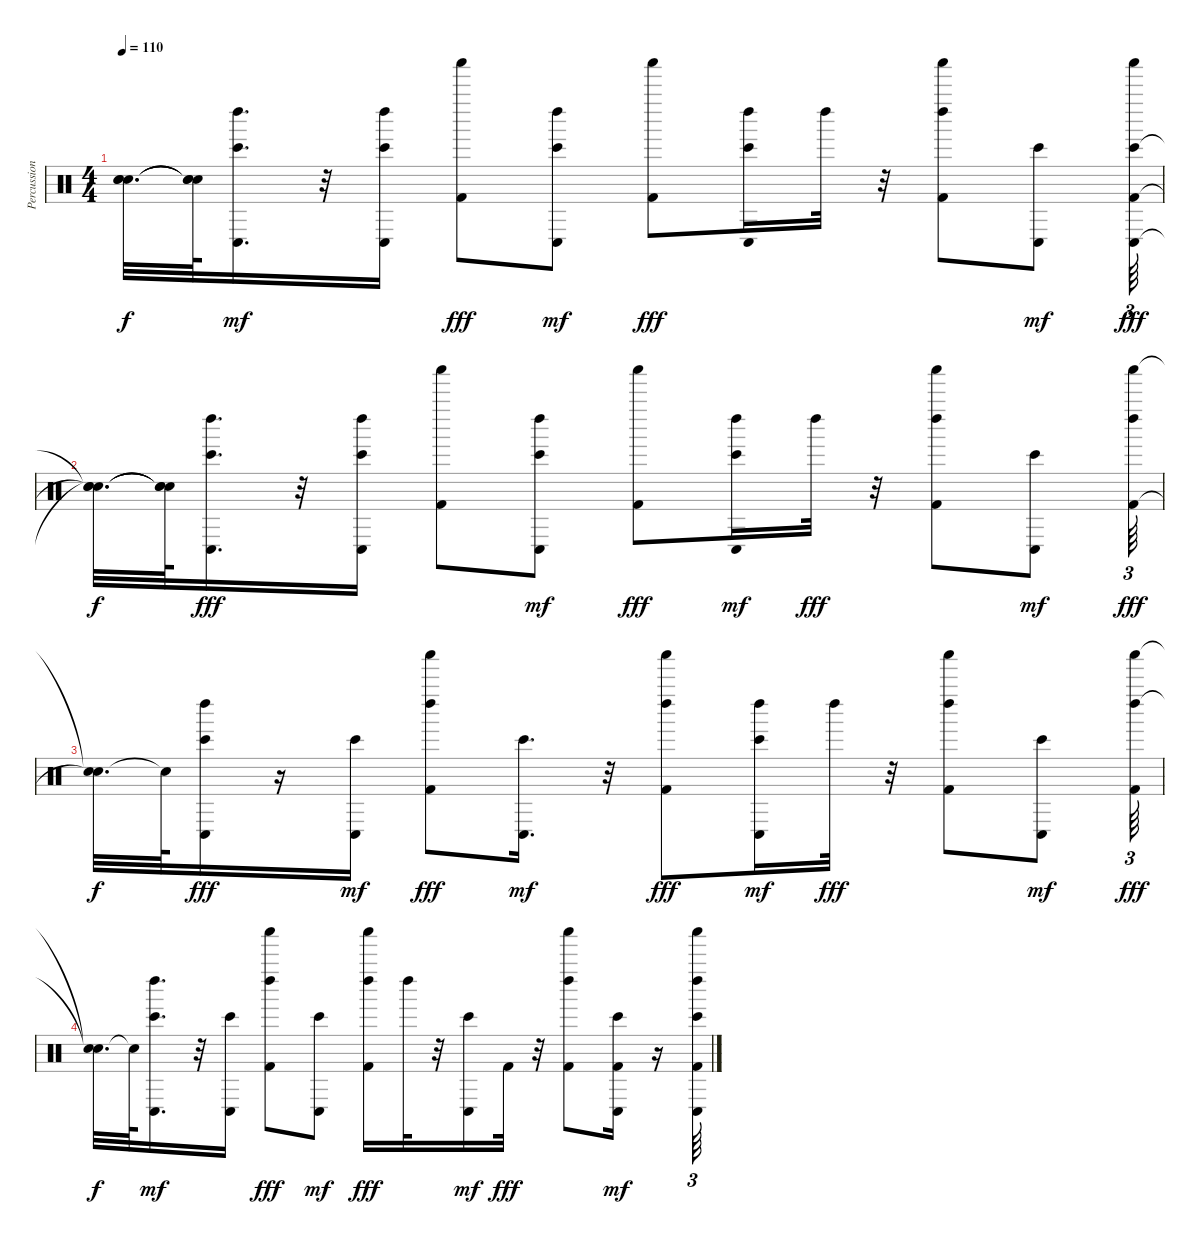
\track ("Percussion" "Percussion") {instrument percussion}
\staff {score}
\articulation defaults
\ts (4 4)
\tempo 110
\clef neutral
\ks c
("Snare (hit)"{t} "Snare (hit)"{t} "Snare (hit)"{t}).32{d dy f} ("Snare (hit)"{t} "Snare (hit)"{t} "Snare (hit)"{t}).64 ("Left Maraca (hit)" "Conga low (hit)" "Bongo High (hit)").16{d dy mf} r.32 ("Bongo High (hit)" "Left Maraca (hit)" "Conga low (hit)").16 ("Kick (hit) 2" "Shaker (hit)").8{dy fff} ("Left Maraca (hit)" "Conga low (hit)" "Bongo High (hit)").8{dy mf} ("Kick (hit) 2" "Shaker (hit)").8{dy fff} ("Conga low (hit)" "Bongo High (hit)" "Left Maraca (hit)").16 "Left Maraca (hit)".32 r.32 ("Shaker (hit)" "Left Maraca (hit)" "Kick (hit) 2").8 ("Conga low (hit)" "Bongo High (hit)").8{dy mf} ("Kick (hit) 2" "Conga low (hit)" "Bongo High (hit)" "Shaker (hit)").64{tu (3 2) dy fff} |
("Snare (hit)"{t} "Snare (hit)"{t} "Snare (hit)"{t}).32{d dy f} ("Snare (hit)"{t} "Snare (hit)"{t} "Snare (hit)"{t}).64 ("Conga low (hit)" "Bongo High (hit)" "Left Maraca (hit)").16{d dy fff} r.32 ("Conga low (hit)" "Bongo High (hit)" "Left Maraca (hit)").16 ("Shaker (hit)" "Kick (hit) 2").8 ("Left Maraca (hit)" "Bongo High (hit)" "Conga low (hit)").8{dy mf} ("Kick (hit) 2" "Shaker (hit)").8{dy fff} ("Left Maraca (hit)" "Bongo High (hit)" "Conga low (hit)").16{dy mf} "Left Maraca (hit)".32{dy fff} r.32 ("Kick (hit) 2" "Left Maraca (hit)" "Shaker (hit)").8 ("Conga low (hit)" "Bongo High (hit)").8{dy mf} ("Shaker (hit)" "Kick (hit) 2" "Left Maraca (hit)").64{tu (3 2) dy fff} |
("Snare (hit)"{t} "Snare (hit)"{t}).32{d dy f} "Snare (hit)"{t}.64 ("Conga low (hit)" "Bongo High (hit)" "Left Maraca (hit)").16{dy fff} r.16 ("Bongo High (hit)" "Conga low (hit)").16{dy mf} ("Kick (hit) 2" "Left Maraca (hit)" "Shaker (hit)").8{dy fff} ("Conga low (hit)" "Bongo High (hit)").16{d dy mf} r.32 ("Kick (hit) 2" "Left Maraca (hit)" "Shaker (hit)").8{dy fff} ("Left Maraca (hit)" "Bongo High (hit)" "Conga low (hit)").16{dy mf} "Left Maraca (hit)".32{dy fff} r.32 ("Left Maraca (hit)" "Shaker (hit)" "Kick (hit) 2").8 ("Conga low (hit)" "Bongo High (hit)").8{dy mf} ("Shaker (hit)" "Left Maraca (hit)" "Kick (hit) 2").64{tu (3 2) dy fff} |
("Snare (hit)"{t} "Snare (hit)"{t}).32{d dy f} "Snare (hit)"{t}.64 ("Left Maraca (hit)" "Conga low (hit)" "Bongo High (hit)").16{d dy mf} r.32 ("Bongo High (hit)" "Conga low (hit)").16 ("Shaker (hit)" "Left Maraca (hit)" "Kick (hit) 2").8{dy fff} ("Bongo High (hit)" "Conga low (hit)").8{dy mf} ("Kick (hit) 2" "Left Maraca (hit)" "Shaker (hit)").16{dy fff} "Left Maraca (hit)".32 r.32 ("Bongo High (hit)" "Conga low (hit)").16{dy mf} "Kick (hit) 2".32{dy fff} r.32 ("Left Maraca (hit)" "Shaker (hit)" "Kick (hit) 2").8 ("Bongo High (hit)" "Kick (hit) 2" "Conga low (hit)").16{dy mf} r.16 ("Conga low (hit)" "Kick (hit) 2" "Left Maraca (hit)" "Shaker (hit)" "Bongo High (hit)").64{tu (3 2)}
